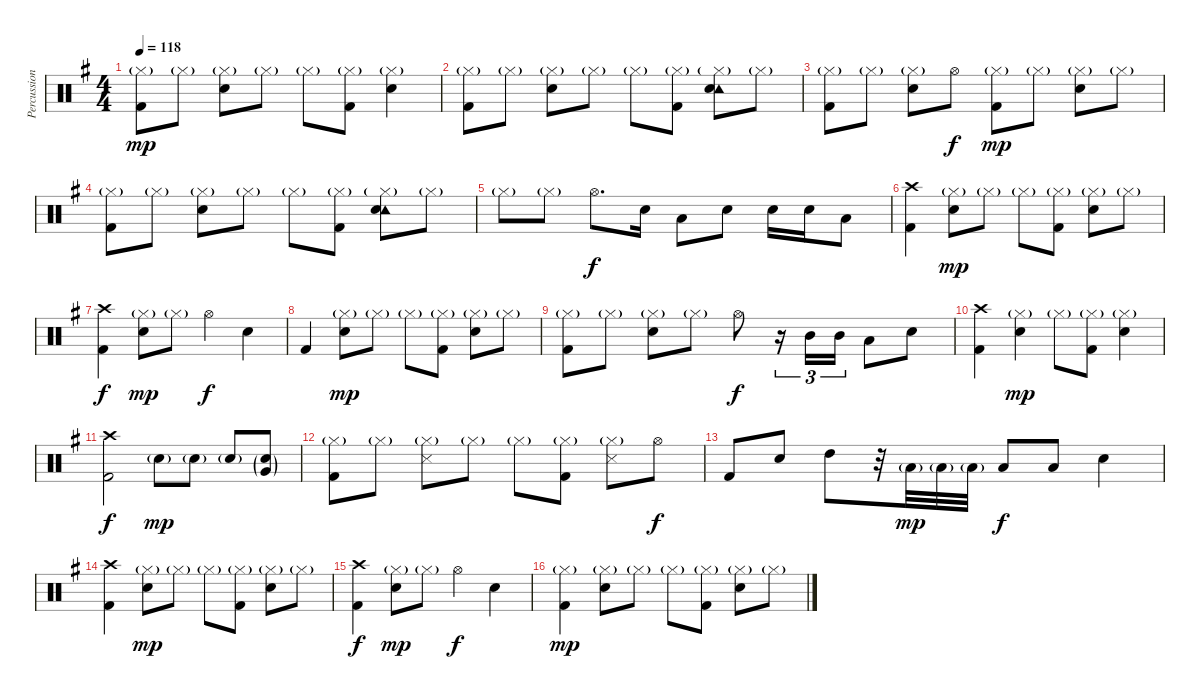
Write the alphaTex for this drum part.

\track ("Percussion" "Percussion") {instrument percussion}
\staff {score}
\articulation defaults
\ts (4 4)
\tempo 118
\clef neutral
\ks eminor
("Hi-Hat (closed)"{g} "Kick (hit) 2").8{dy mp} "Hi-Hat (closed)"{g}.8 ("Hi-Hat (closed)"{g} "Electric Snare (hit)").8 "Hi-Hat (closed)"{g}.8 "Hi-Hat (closed)"{g}.8 ("Hi-Hat (closed)"{g} "Kick (hit) 2").8 ("Hi-Hat (closed)"{g} "Electric Snare (hit)").4 |
("Hi-Hat (closed)"{g} "Kick (hit) 2").8 "Hi-Hat (closed)"{g}.8 ("Hi-Hat (closed)"{g} "Electric Snare (hit)").8 "Hi-Hat (closed)"{g}.8 "Hi-Hat (closed)"{g}.8 ("Hi-Hat (closed)"{g} "Kick (hit) 2").8 ("Tambourine (hit)" "Hi-Hat (closed)"{g} "Electric Snare (hit)").8 "Hi-Hat (closed)"{g}.8 |
("Hi-Hat (closed)"{g} "Kick (hit) 2").8 "Hi-Hat (closed)"{g}.8 ("Hi-Hat (closed)"{g} "Electric Snare (hit)").8 "Hi-Hat (open)".8{dy f} ("Hi-Hat (closed)"{g} "Kick (hit) 2").8{dy mp} "Hi-Hat (closed)"{g}.8 ("Hi-Hat (closed)"{g} "Electric Snare (hit)").8 "Hi-Hat (closed)"{g}.8 |
("Hi-Hat (closed)"{g} "Kick (hit) 2").8 "Hi-Hat (closed)"{g}.8 ("Hi-Hat (closed)"{g} "Electric Snare (hit)").8 "Hi-Hat (closed)"{g}.8 "Hi-Hat (closed)"{g}.8 ("Hi-Hat (closed)"{g} "Kick (hit) 2").8 ("Tambourine (hit)" "Hi-Hat (closed)"{g} "Electric Snare (hit)").8 "Hi-Hat (closed)"{g}.8 |
"Hi-Hat (closed)"{g}.8 "Hi-Hat (closed)"{g}.8 "Hi-Hat (open)".8{d dy f} "Electric Snare (hit)".16 "Low Tom (hit)".8 "Electric Snare (hit)".8 "Electric Snare (hit)".16 "Electric Snare (hit)".16 "Low Floor Tom (hit)".8 |
("Crash high (hit)" "Kick (hit) 2").4 ("Hi-Hat (closed)"{g} "Electric Snare (hit)").8{dy mp} "Hi-Hat (closed)"{g}.8 "Hi-Hat (closed)"{g}.8 ("Hi-Hat (closed)"{g} "Kick (hit) 2").8 ("Hi-Hat (closed)"{g} "Electric Snare (hit)").8 "Hi-Hat (closed)"{g}.8 |
("Crash high (hit)" "Kick (hit) 2").4{dy f} ("Hi-Hat (closed)"{g} "Electric Snare (hit)").8{dy mp} "Hi-Hat (closed)"{g}.8 "Hi-Hat (open)".4{dy f} "Electric Snare (hit)".4 |
"Kick (hit) 2".4 ("Hi-Hat (closed)"{g} "Electric Snare (hit)").8{dy mp} "Hi-Hat (closed)"{g}.8 "Hi-Hat (closed)"{g}.8 ("Hi-Hat (closed)"{g} "Kick (hit) 2").8 ("Hi-Hat (closed)"{g} "Electric Snare (hit)").8 "Hi-Hat (closed)"{g}.8 |
("Hi-Hat (closed)"{g} "Kick (hit) 2").8 "Hi-Hat (closed)"{g}.8 ("Hi-Hat (closed)"{g} "Electric Snare (hit)").8 "Hi-Hat (closed)"{g}.8 "Hi-Hat (open)".8{dy f} r.16{tu (3 2)} "Mid Tom (hit)".16{tu (3 2)} "Mid Tom (hit)".16{tu (3 2)} "Low Tom (hit)".8 "Electric Snare (hit)".8 |
("Crash high (hit)" "Kick (hit) 2").4 ("Hi-Hat (closed)"{g} "Electric Snare (hit)").4{dy mp} "Hi-Hat (closed)"{g}.8 ("Hi-Hat (closed)"{g} "Kick (hit) 2").8 ("Hi-Hat (closed)"{g} "Electric Snare (hit)").4 |
("Crash high (hit)" "Kick (hit) 2").2{dy f} "Electric Snare (hit)"{g}.8{dy mp} "Electric Snare (hit)"{g}.8 "Electric Snare (hit)"{g}.8 ("Very Low Tom (hit)"{g} "Electric Snare (hit)"{g}).8 |
("Hi-Hat (closed)"{g} "Kick (hit) 2").8 "Hi-Hat (closed)"{g}.8 ("Hi-Hat (closed)"{g} "Snare (side stick) 3").8 "Hi-Hat (closed)"{g}.8 "Hi-Hat (closed)"{g}.8 ("Hi-Hat (closed)"{g} "Kick (hit) 2").8 ("Hi-Hat (closed)"{g} "Snare (side stick) 3").8 "Hi-Hat (open)".8{dy f} |
"Kick (hit) 2".8 "Electric Snare (hit)".8 "High Tom (hit)".8 r.32 "Low Tom (hit)"{g}.32{dy mp} "Low Tom (hit)"{g}.32 "Low Tom (hit)"{g}.32 "Low Tom (hit)".8{dy f} "Low Floor Tom (hit)".8 "Electric Snare (hit)".4 |
("Crash high (hit)" "Kick (hit) 2").4 ("Hi-Hat (closed)"{g} "Electric Snare (hit)").8{dy mp} "Hi-Hat (closed)"{g}.8 "Hi-Hat (closed)"{g}.8 ("Hi-Hat (closed)"{g} "Kick (hit) 2").8 ("Hi-Hat (closed)"{g} "Electric Snare (hit)").8 "Hi-Hat (closed)"{g}.8 |
("Crash high (hit)" "Kick (hit) 2").4{dy f} ("Hi-Hat (closed)"{g} "Electric Snare (hit)").8{dy mp} "Hi-Hat (closed)"{g}.8 "Hi-Hat (open)".4{dy f} "Electric Snare (hit)".4 |
("Hi-Hat (closed)"{g} "Kick (hit) 2").4{dy mp} ("Hi-Hat (closed)"{g} "Electric Snare (hit)").8 "Hi-Hat (closed)"{g}.8 "Hi-Hat (closed)"{g}.8 ("Hi-Hat (closed)"{g} "Kick (hit) 2").8 ("Hi-Hat (closed)"{g} "Electric Snare (hit)").8 "Hi-Hat (closed)"{g}.8
